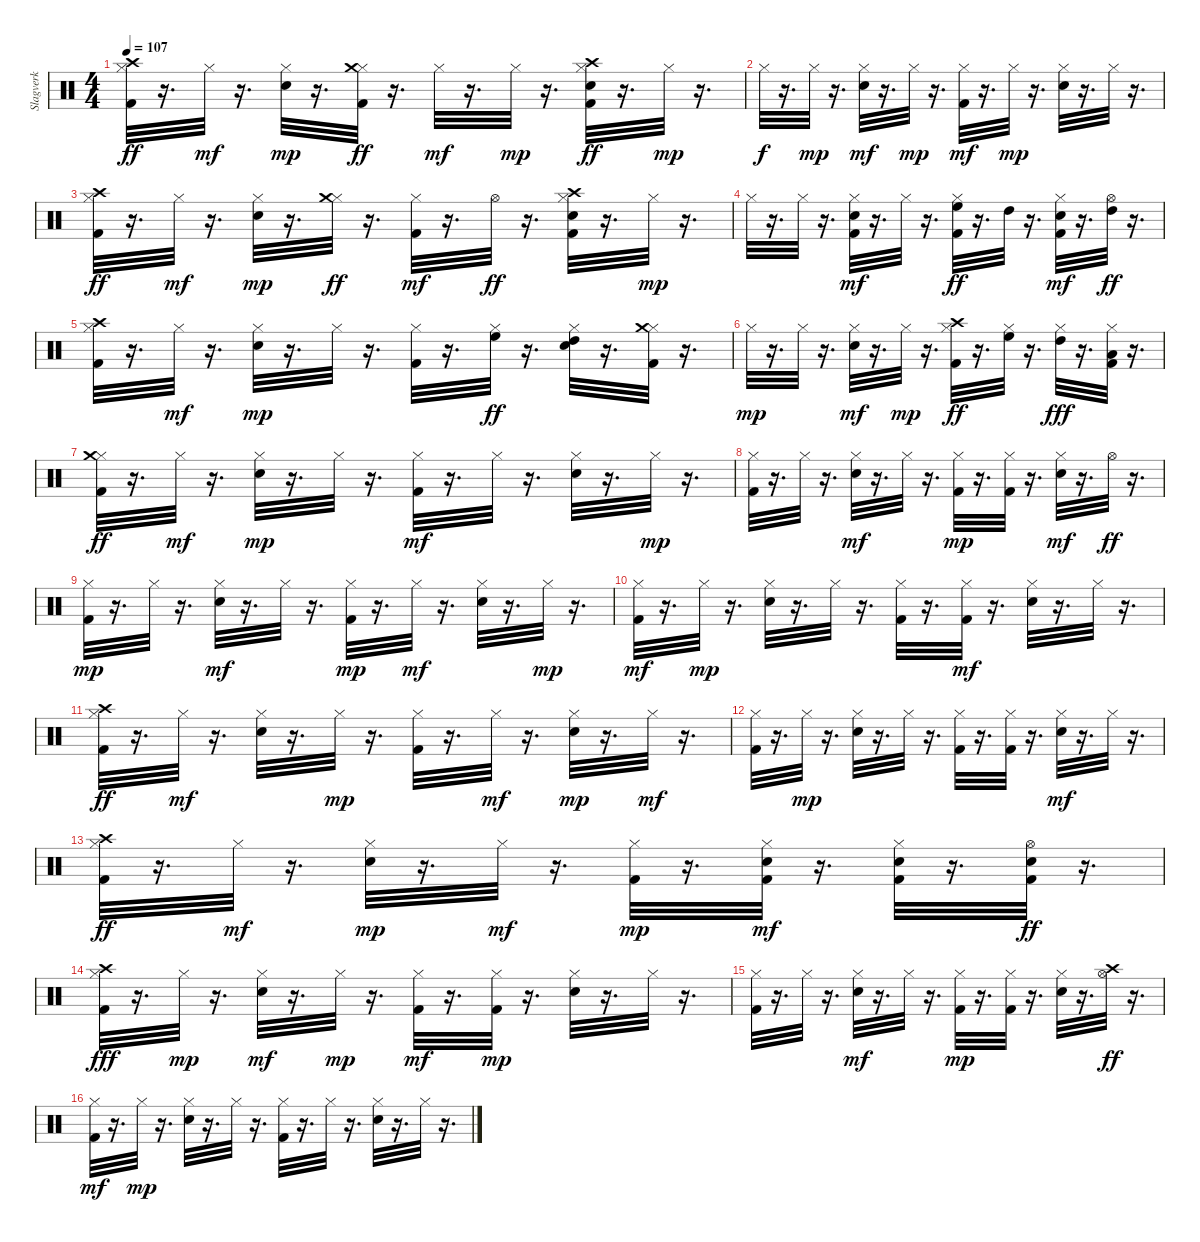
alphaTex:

\track ("Slagverk" "Slagverk") {instrument percussion}
\staff {score}
\articulation defaults
\ts (4 4)
\tempo 107
\clef neutral
\ks c
("Kick (hit) 2" "Hi-Hat (closed)" "Crash high (hit)").32{dy ff} r.16{d} "Hi-Hat (closed)".32{dy mf} r.16{d} ("Snare (hit) 2" "Hi-Hat (closed)").32{dy mp} r.16{d} ("Kick (hit) 2" "Hi-Hat (closed)" "Crash medium (hit)").32{dy ff} r.16{d} "Hi-Hat (closed)".32{dy mf} r.16{d} "Hi-Hat (closed)".32{dy mp} r.16{d} ("Kick (hit) 2" "Snare (hit) 2" "Hi-Hat (closed)" "Crash high (hit)").32{dy ff} r.16{d} "Hi-Hat (closed)".32{dy mp} r.16{d} |
"Hi-Hat (closed)".32{dy f} r.16{d} "Hi-Hat (closed)".32{dy mp} r.16{d} ("Snare (hit) 2" "Hi-Hat (closed)").32{dy mf} r.16{d} "Hi-Hat (closed)".32{dy mp} r.16{d} ("Kick (hit) 2" "Hi-Hat (closed)").32{dy mf} r.16{d} "Hi-Hat (closed)".32{dy mp} r.16{d} ("Snare (hit) 2" "Hi-Hat (closed)").32 r.16{d} "Hi-Hat (closed)".32 r.16{d} |
("Kick (hit) 2" "Hi-Hat (closed)" "Crash high (hit)").32{dy ff} r.16{d} "Hi-Hat (closed)".32{dy mf} r.16{d} ("Snare (hit) 2" "Hi-Hat (closed)").32{dy mp} r.16{d} ("Hi-Hat (closed)" "Crash medium (hit)").32{dy ff} r.16{d} ("Kick (hit) 2" "Hi-Hat (closed)").32{dy mf} r.16{d} "Hi-Hat (open)".32{dy ff} r.16{d} ("Kick (hit) 2" "Snare (hit) 2" "Hi-Hat (closed)" "Crash high (hit)").32 r.16{d} "Hi-Hat (closed)".32{dy mp} r.16{d} |
"Hi-Hat (closed)".32 r.16{d} "Hi-Hat (closed)".32 r.16{d} ("Kick (hit) 2" "Snare (hit) 2" "Hi-Hat (closed)").32{dy mf} r.16{d} "Hi-Hat (closed)".32 r.16{d} ("Kick (hit) 2" "Hi-Hat (closed)" "High Floor Tom (hit)").32{dy ff} r.16{d} "High Tom (hit)".32 r.16{d} ("Kick (hit) 2" "Snare (hit) 2" "Hi-Hat (closed)").32{dy mf} r.16{d} ("Hi-Hat (open)" "High Tom (hit)").32{dy ff} r.16{d} |
("Kick (hit) 2" "Hi-Hat (closed)" "Crash high (hit)").32 r.16{d} "Hi-Hat (closed)".32{dy mf} r.16{d} ("Snare (hit) 2" "Hi-Hat (closed)").32{dy mp} r.16{d} "Hi-Hat (closed)".32 r.16{d} ("Kick (hit) 2" "Hi-Hat (closed)").32 r.16{d} ("Hi-Hat (closed)" "High Floor Tom (hit)").32{dy ff} r.16{d} ("Snare (hit) 2" "Hi-Hat (closed)" "High Tom (hit)").32 r.16{d} ("Kick (hit) 2" "Hi-Hat (closed)" "Crash medium (hit)").32 r.16{d} |
"Hi-Hat (closed)".32{dy mp} r.16{d} "Hi-Hat (closed)".32 r.16{d} ("Snare (hit) 2" "Hi-Hat (closed)").32{dy mf} r.16{d} "Hi-Hat (closed)".32{dy mp} r.16{d} ("Kick (hit) 2" "Hi-Hat (closed)" "Crash high (hit)").32{dy ff} r.16{d} ("Hi-Hat (closed)" "High Floor Tom (hit)").32 r.16{d} ("Hi-Hat (closed)" "High Tom (hit)").32{dy fff} r.16{d} ("Kick (hit) 2" "Hi-Hat (closed)" "Low Tom (hit)").32 r.16{d} |
("Kick (hit) 2" "Hi-Hat (closed)" "Crash medium (hit)").32{dy ff} r.16{d} "Hi-Hat (closed)".32{dy mf} r.16{d} ("Snare (hit) 2" "Hi-Hat (closed)").32{dy mp} r.16{d} "Hi-Hat (closed)".32 r.16{d} ("Kick (hit) 2" "Hi-Hat (closed)").32{dy mf} r.16{d} "Hi-Hat (closed)".32 r.16{d} ("Snare (hit) 2" "Hi-Hat (closed)").32 r.16{d} "Hi-Hat (closed)".32{dy mp} r.16{d} |
("Kick (hit) 2" "Hi-Hat (closed)").32 r.16{d} "Hi-Hat (closed)".32 r.16{d} ("Snare (hit) 2" "Hi-Hat (closed)").32{dy mf} r.16{d} "Hi-Hat (closed)".32 r.16{d} ("Kick (hit) 2" "Hi-Hat (closed)").32{dy mp} r.16{d} ("Kick (hit) 2" "Hi-Hat (closed)").32 r.16{d} ("Snare (hit) 2" "Hi-Hat (closed)").32{dy mf} r.16{d} "Hi-Hat (open)".32{dy ff} r.16{d} |
("Kick (hit) 2" "Hi-Hat (closed)").32{dy mp} r.16{d} "Hi-Hat (closed)".32 r.16{d} ("Snare (hit) 2" "Hi-Hat (closed)").32{dy mf} r.16{d} "Hi-Hat (closed)".32 r.16{d} ("Kick (hit) 2" "Hi-Hat (closed)").32{dy mp} r.16{d} "Hi-Hat (closed)".32{dy mf} r.16{d} ("Snare (hit) 2" "Hi-Hat (closed)").32 r.16{d} "Hi-Hat (closed)".32{dy mp} r.16{d} |
("Kick (hit) 2" "Hi-Hat (closed)").32{dy mf} r.16{d} "Hi-Hat (closed)".32{dy mp} r.16{d} ("Snare (hit) 2" "Hi-Hat (closed)").32 r.16{d} "Hi-Hat (closed)".32 r.16{d} ("Kick (hit) 2" "Hi-Hat (closed)").32 r.16{d} ("Kick (hit) 2" "Hi-Hat (closed)").32{dy mf} r.16{d} ("Snare (hit) 2" "Hi-Hat (closed)").32 r.16{d} "Hi-Hat (closed)".32 r.16{d} |
("Kick (hit) 2" "Hi-Hat (closed)" "Crash high (hit)").32{dy ff} r.16{d} "Hi-Hat (closed)".32{dy mf} r.16{d} ("Snare (hit) 2" "Hi-Hat (closed)").32 r.16{d} "Hi-Hat (closed)".32{dy mp} r.16{d} ("Kick (hit) 2" "Hi-Hat (closed)").32 r.16{d} "Hi-Hat (closed)".32{dy mf} r.16{d} ("Snare (hit) 2" "Hi-Hat (closed)").32{dy mp} r.16{d} "Hi-Hat (closed)".32{dy mf} r.16{d} |
("Kick (hit) 2" "Hi-Hat (closed)").32 r.16{d} "Hi-Hat (closed)".32{dy mp} r.16{d} ("Snare (hit) 2" "Hi-Hat (closed)").32 r.16{d} "Hi-Hat (closed)".32 r.16{d} ("Kick (hit) 2" "Hi-Hat (closed)").32 r.16{d} ("Kick (hit) 2" "Hi-Hat (closed)").32 r.16{d} ("Snare (hit) 2" "Hi-Hat (closed)").32{dy mf} r.16{d} "Hi-Hat (closed)".32 r.16{d} |
("Kick (hit) 2" "Hi-Hat (closed)" "Crash high (hit)").32{dy ff} r.16{d} "Hi-Hat (closed)".32{dy mf} r.16{d} ("Snare (hit) 2" "Hi-Hat (closed)").32{dy mp} r.16{d} "Hi-Hat (closed)".32{dy mf} r.16{d} ("Kick (hit) 2" "Hi-Hat (closed)").32{dy mp} r.16{d} ("Kick (hit) 2" "Snare (hit) 2" "Hi-Hat (closed)").32{dy mf} r.16{d} ("Kick (hit) 2" "Snare (hit) 2" "Hi-Hat (closed)").32 r.16{d} ("Kick (hit) 2" "Snare (hit) 2" "Hi-Hat (open)").32{dy ff} r.16{d} |
("Kick (hit) 2" "Hi-Hat (closed)" "Crash high (hit)").32{dy fff} r.16{d} "Hi-Hat (closed)".32{dy mp} r.16{d} ("Snare (hit) 2" "Hi-Hat (closed)").32{dy mf} r.16{d} "Hi-Hat (closed)".32{dy mp} r.16{d} ("Kick (hit) 2" "Hi-Hat (closed)").32{dy mf} r.16{d} ("Kick (hit) 2" "Hi-Hat (closed)").32{dy mp} r.16{d} ("Snare (hit) 2" "Hi-Hat (closed)").32 r.16{d} "Hi-Hat (closed)".32 r.16{d} |
("Kick (hit) 2" "Hi-Hat (closed)").32 r.16{d} "Hi-Hat (closed)".32 r.16{d} ("Snare (hit) 2" "Hi-Hat (closed)").32{dy mf} r.16{d} "Hi-Hat (closed)".32 r.16{d} ("Kick (hit) 2" "Hi-Hat (closed)").32{dy mp} r.16{d} ("Kick (hit) 2" "Hi-Hat (closed)").32 r.16{d} ("Snare (hit) 2" "Hi-Hat (closed)").32 r.16{d} ("Hi-Hat (open)" "Crash high (hit)").32{dy ff} r.16{d} |
("Kick (hit) 2" "Hi-Hat (closed)").32{dy mf} r.16{d} "Hi-Hat (closed)".32{dy mp} r.16{d} ("Snare (hit) 2" "Hi-Hat (closed)").32 r.16{d} "Hi-Hat (closed)".32 r.16{d} ("Kick (hit) 2" "Hi-Hat (closed)").32 r.16{d} "Hi-Hat (closed)".32 r.16{d} ("Snare (hit) 2" "Hi-Hat (closed)").32 r.16{d} "Hi-Hat (closed)".32 r.16{d}
